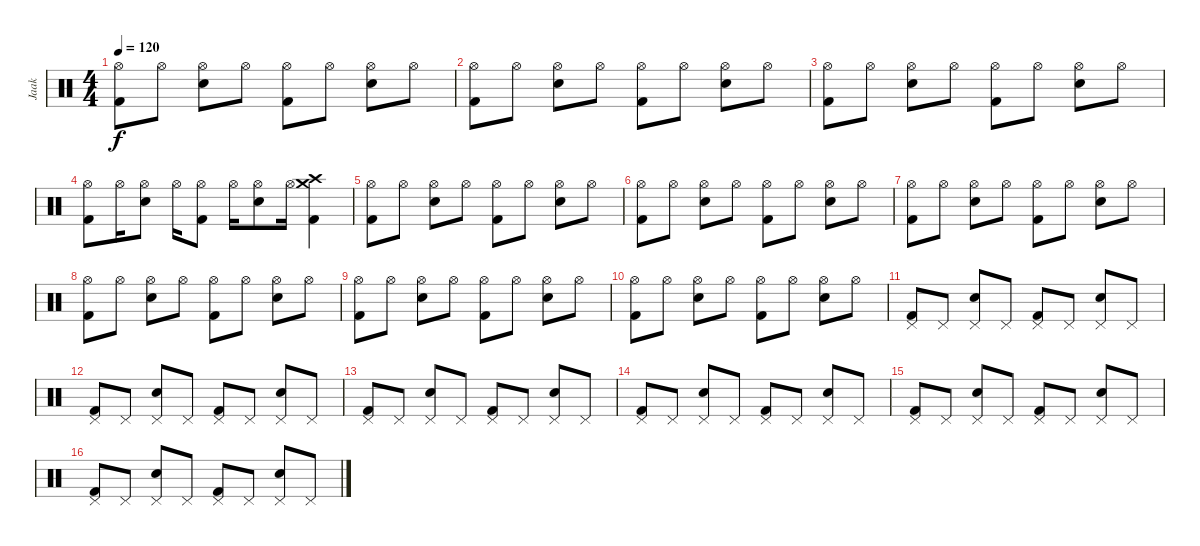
\track ("Jaak" "Jaak") {instrument percussion}
\staff {score}
\articulation defaults
\ts (4 4)
\tempo 120
\clef neutral
\ks c
("Hi-Hat (open)" "Kick (hit) 2").8{dy f} "Hi-Hat (open)".8 ("Hi-Hat (open)" "Snare (hit) 2").8 "Hi-Hat (open)".8 ("Hi-Hat (open)" "Kick (hit) 2").8 "Hi-Hat (open)".8 ("Hi-Hat (open)" "Snare (hit) 2").8 "Hi-Hat (open)".8 |
("Hi-Hat (open)" "Kick (hit) 2").8 "Hi-Hat (open)".8 ("Hi-Hat (open)" "Snare (hit) 2").8 "Hi-Hat (open)".8 ("Hi-Hat (open)" "Kick (hit) 2").8 "Hi-Hat (open)".8 ("Hi-Hat (open)" "Snare (hit) 2").8 "Hi-Hat (open)".8 |
("Hi-Hat (open)" "Kick (hit) 2").8 "Hi-Hat (open)".8 ("Hi-Hat (open)" "Snare (hit) 2").8 "Hi-Hat (open)".8 ("Hi-Hat (open)" "Kick (hit) 2").8 "Hi-Hat (open)".8 ("Hi-Hat (open)" "Snare (hit) 2").8 "Hi-Hat (open)".8 |
("Hi-Hat (open)" "Kick (hit) 2").8 "Hi-Hat (open)".16 ("Hi-Hat (open)" "Snare (hit) 2").8 "Hi-Hat (open)".16 ("Hi-Hat (open)" "Kick (hit) 2").8 "Hi-Hat (open)".16 ("Hi-Hat (open)" "Snare (hit) 2").8 "Hi-Hat (open)".16 ("Crash medium (hit)" "Crash high (hit)" "Kick (hit) 2").4 |
("Hi-Hat (open)" "Kick (hit) 2").8 "Hi-Hat (open)".8 ("Hi-Hat (open)" "Snare (hit) 2").8 "Hi-Hat (open)".8 ("Hi-Hat (open)" "Kick (hit) 2").8 "Hi-Hat (open)".8 ("Hi-Hat (open)" "Snare (hit) 2").8 "Hi-Hat (open)".8 |
("Hi-Hat (open)" "Kick (hit) 2").8 "Hi-Hat (open)".8 ("Hi-Hat (open)" "Snare (hit) 2").8 "Hi-Hat (open)".8 ("Hi-Hat (open)" "Kick (hit) 2").8 "Hi-Hat (open)".8 ("Hi-Hat (open)" "Snare (hit) 2").8 "Hi-Hat (open)".8 |
("Hi-Hat (open)" "Kick (hit) 2").8 "Hi-Hat (open)".8 ("Hi-Hat (open)" "Snare (hit) 2").8 "Hi-Hat (open)".8 ("Hi-Hat (open)" "Kick (hit) 2").8 "Hi-Hat (open)".8 ("Hi-Hat (open)" "Snare (hit) 2").8 "Hi-Hat (open)".8 |
("Hi-Hat (open)" "Kick (hit) 2").8 "Hi-Hat (open)".8 ("Hi-Hat (open)" "Snare (hit) 2").8 "Hi-Hat (open)".8 ("Hi-Hat (open)" "Kick (hit) 2").8 "Hi-Hat (open)".8 ("Hi-Hat (open)" "Snare (hit) 2").8 "Hi-Hat (open)".8 |
("Hi-Hat (open)" "Kick (hit) 2").8 "Hi-Hat (open)".8 ("Hi-Hat (open)" "Snare (hit) 2").8 "Hi-Hat (open)".8 ("Hi-Hat (open)" "Kick (hit) 2").8 "Hi-Hat (open)".8 ("Hi-Hat (open)" "Snare (hit) 2").8 "Hi-Hat (open)".8 |
("Hi-Hat (open)" "Kick (hit) 2").8 "Hi-Hat (open)".8 ("Hi-Hat (open)" "Snare (hit) 2").8 "Hi-Hat (open)".8 ("Hi-Hat (open)" "Kick (hit) 2").8 "Hi-Hat (open)".8 ("Hi-Hat (open)" "Snare (hit) 2").8 "Hi-Hat (open)".8 |
("Pedal Hi-Hat (hit)" "Kick (hit) 2").8 "Pedal Hi-Hat (hit)".8 ("Pedal Hi-Hat (hit)" "Snare (hit) 2").8 "Pedal Hi-Hat (hit)".8 ("Pedal Hi-Hat (hit)" "Kick (hit) 2").8 "Pedal Hi-Hat (hit)".8 ("Pedal Hi-Hat (hit)" "Snare (hit) 2").8 "Pedal Hi-Hat (hit)".8 |
("Pedal Hi-Hat (hit)" "Kick (hit) 2").8 "Pedal Hi-Hat (hit)".8 ("Pedal Hi-Hat (hit)" "Snare (hit) 2").8 "Pedal Hi-Hat (hit)".8 ("Pedal Hi-Hat (hit)" "Kick (hit) 2").8 "Pedal Hi-Hat (hit)".8 ("Pedal Hi-Hat (hit)" "Snare (hit) 2").8 "Pedal Hi-Hat (hit)".8 |
("Pedal Hi-Hat (hit)" "Kick (hit) 2").8 "Pedal Hi-Hat (hit)".8 ("Pedal Hi-Hat (hit)" "Snare (hit) 2").8 "Pedal Hi-Hat (hit)".8 ("Pedal Hi-Hat (hit)" "Kick (hit) 2").8 "Pedal Hi-Hat (hit)".8 ("Pedal Hi-Hat (hit)" "Snare (hit) 2").8 "Pedal Hi-Hat (hit)".8 |
("Pedal Hi-Hat (hit)" "Kick (hit) 2").8 "Pedal Hi-Hat (hit)".8 ("Pedal Hi-Hat (hit)" "Snare (hit) 2").8 "Pedal Hi-Hat (hit)".8 ("Pedal Hi-Hat (hit)" "Kick (hit) 2").8 "Pedal Hi-Hat (hit)".8 ("Pedal Hi-Hat (hit)" "Snare (hit) 2").8 "Pedal Hi-Hat (hit)".8 |
("Pedal Hi-Hat (hit)" "Kick (hit) 2").8 "Pedal Hi-Hat (hit)".8 ("Pedal Hi-Hat (hit)" "Snare (hit) 2").8 "Pedal Hi-Hat (hit)".8 ("Pedal Hi-Hat (hit)" "Kick (hit) 2").8 "Pedal Hi-Hat (hit)".8 ("Pedal Hi-Hat (hit)" "Snare (hit) 2").8 "Pedal Hi-Hat (hit)".8 |
("Pedal Hi-Hat (hit)" "Kick (hit) 2").8 "Pedal Hi-Hat (hit)".8 ("Pedal Hi-Hat (hit)" "Snare (hit) 2").8 "Pedal Hi-Hat (hit)".8 ("Pedal Hi-Hat (hit)" "Kick (hit) 2").8 "Pedal Hi-Hat (hit)".8 ("Pedal Hi-Hat (hit)" "Snare (hit) 2").8 "Pedal Hi-Hat (hit)".8
